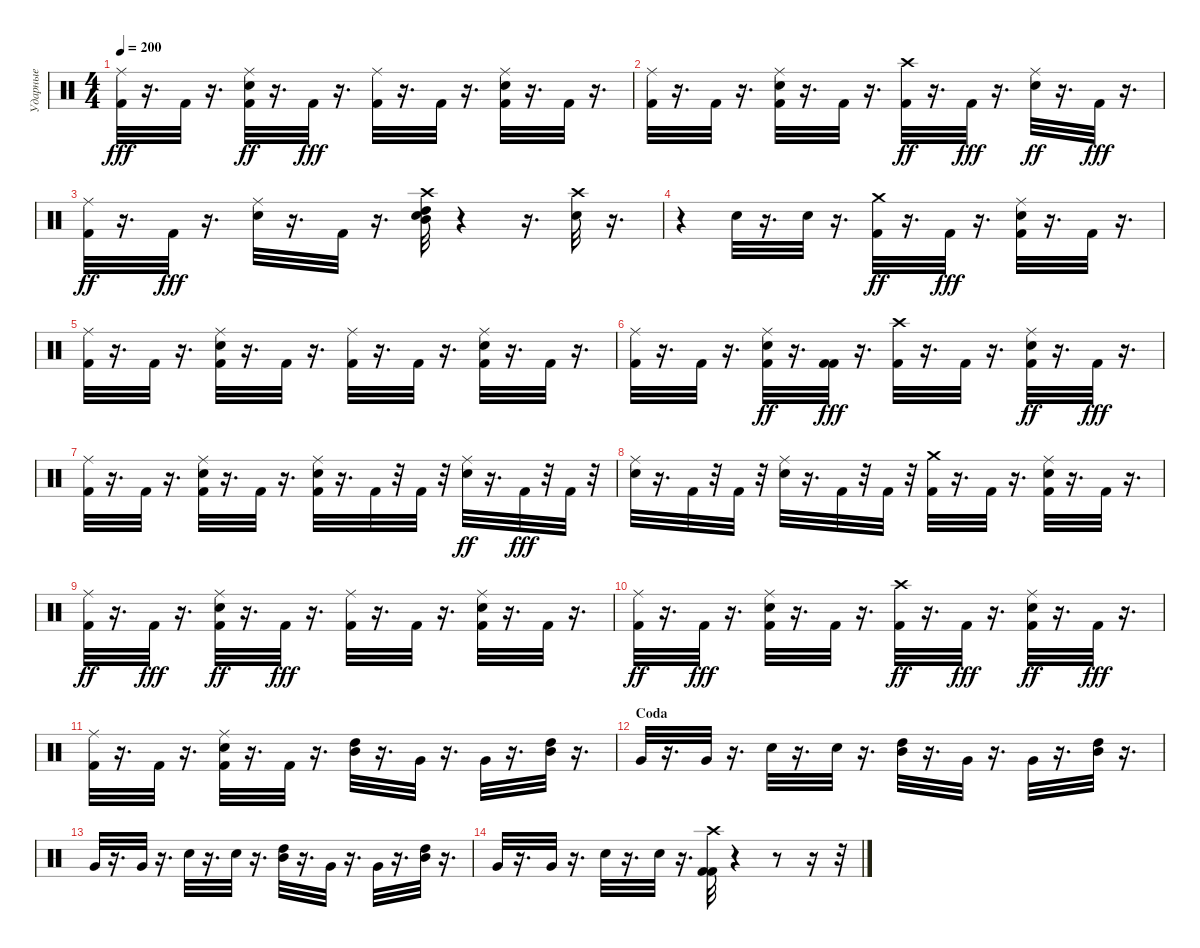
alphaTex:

\track ("Ударные" "Ударные") {instrument percussion}
\staff {score}
\articulation defaults
\ts (4 4)
\tempo 200
\clef neutral
\ks c
("Ride (middle)" "Kick (hit) 2").32{dy fff} r.16{d} "Kick (hit) 2".32 r.16{d} ("Kick (hit) 2" "Snare (hit) 2" "Ride (middle)").32{dy ff} r.16{d} "Kick (hit) 2".32{dy fff} r.16{d} ("Ride (middle)" "Kick (hit) 2").32 r.16{d} "Kick (hit) 2".32 r.16{d} ("Kick (hit) 2" "Ride (middle)" "Snare (hit) 2").32 r.16{d} "Kick (hit) 2".32 r.16{d} |
("Ride (middle)" "Kick (hit) 2").32 r.16{d} "Kick (hit) 2".32 r.16{d} ("Kick (hit) 2" "Ride (middle)" "Snare (hit) 2").32 r.16{d} "Kick (hit) 2".32 r.16{d} ("Kick (hit) 2" "Crash high (hit)").32{dy ff} r.16{d} "Kick (hit) 2".32{dy fff} r.16{d} ("Snare (hit) 2" "Ride (middle)").32{dy ff} r.16{d} "Kick (hit) 2".32{dy fff} r.16{d} |
("Kick (hit) 2" "Ride (middle)").32{dy ff} r.16{d} "Kick (hit) 2".32{dy fff} r.16{d} ("Ride (middle)" "Snare (hit) 2").32 r.16{d} "Kick (hit) 2".32 r.16{d} ("Crash high (hit)" "Mid Tom (hit)" "High Tom (hit)" "Snare (hit) 2").32 r.4 r.16{d} ("Crash high (hit)" "Snare (hit) 2").32 r.16{d} |
r.4 "Snare (hit) 2".32 r.16{d} "Snare (hit) 2".32 r.16{d} ("Kick (hit) 2" "Crash medium (hit)").32{dy ff} r.16{d} "Kick (hit) 2".32{dy fff} r.16{d} ("Kick (hit) 2" "Ride (middle)" "Snare (hit) 2").32 r.16{d} "Kick (hit) 2".32 r.16{d} |
("Ride (middle)" "Kick (hit) 2").32 r.16{d} "Kick (hit) 2".32 r.16{d} ("Kick (hit) 2" "Ride (middle)" "Snare (hit) 2").32 r.16{d} "Kick (hit) 2".32 r.16{d} ("Ride (middle)" "Kick (hit) 2").32 r.16{d} "Kick (hit) 2".32 r.16{d} ("Ride (middle)" "Snare (hit) 2" "Kick (hit) 2").32 r.16{d} "Kick (hit) 2".32 r.16{d} |
("Ride (middle)" "Kick (hit) 2").32 r.16{d} "Kick (hit) 2".32 r.16{d} ("Kick (hit) 2" "Snare (hit) 2" "Ride (middle)").32{dy ff} r.16{d} ("Kick (hit) 2" "Kick (hit) 2").32{dy fff} r.16{d} ("Crash high (hit)" "Kick (hit) 2").32 r.16{d} "Kick (hit) 2".32 r.16{d} ("Snare (hit) 2" "Kick (hit) 2" "Ride (middle)").32{dy ff} r.16{d} "Kick (hit) 2".32{dy fff} r.16{d} |
("Ride (middle)" "Kick (hit) 2").32 r.16{d} "Kick (hit) 2".32 r.16{d} ("Kick (hit) 2" "Ride (middle)" "Snare (hit) 2").32 r.16{d} "Kick (hit) 2".32 r.16{d} ("Snare (hit) 2" "Ride (middle)" "Kick (hit) 2").32 r.16{d} "Kick (hit) 2".32 r.32 "Kick (hit) 2".32 r.32 ("Snare (hit) 2" "Ride (middle)").32{dy ff} r.16{d} "Kick (hit) 2".32{dy fff} r.32 "Kick (hit) 2".32 r.32 |
("Ride (middle)" "Snare (hit) 2").32 r.16{d} "Kick (hit) 2".32 r.32 "Kick (hit) 2".32 r.32 ("Ride (middle)" "Snare (hit) 2").32 r.16{d} "Kick (hit) 2".32 r.32 "Kick (hit) 2".32 r.32 ("Crash medium (hit)" "Kick (hit) 2").32 r.16{d} "Kick (hit) 2".32 r.16{d} ("Ride (middle)" "Snare (hit) 2" "Kick (hit) 2").32 r.16{d} "Kick (hit) 2".32 r.16{d} |
("Kick (hit) 2" "Ride (middle)").32{dy ff} r.16{d} "Kick (hit) 2".32{dy fff} r.16{d} ("Kick (hit) 2" "Snare (hit) 2" "Ride (middle)").32{dy ff} r.16{d} "Kick (hit) 2".32{dy fff} r.16{d} ("Ride (middle)" "Kick (hit) 2").32 r.16{d} "Kick (hit) 2".32 r.16{d} ("Snare (hit) 2" "Ride (middle)" "Kick (hit) 2").32 r.16{d} "Kick (hit) 2".32 r.16{d} |
("Kick (hit) 2" "Ride (middle)").32{dy ff} r.16{d} "Kick (hit) 2".32{dy fff} r.16{d} ("Kick (hit) 2" "Ride (middle)" "Snare (hit) 2").32 r.16{d} "Kick (hit) 2".32 r.16{d} ("Kick (hit) 2" "Crash high (hit)").32{dy ff} r.16{d} "Kick (hit) 2".32{dy fff} r.16{d} ("Kick (hit) 2" "Snare (hit) 2" "Ride (middle)").32{dy ff} r.16{d} "Kick (hit) 2".32{dy fff} r.16{d} |
("Ride (middle)" "Kick (hit) 2").32 r.16{d} "Kick (hit) 2".32 r.16{d} ("Kick (hit) 2" "Ride (middle)" "Snare (hit) 2").32 r.16{d} "Kick (hit) 2".32 r.16{d} ("High Tom (hit)" "Mid Tom (hit)").32 r.16{d} "Very Low Tom (hit)".32 r.16{d} "Very Low Tom (hit)".32 r.16{d} ("High Tom (hit)" "Mid Tom (hit)").32 r.16{d} |
\section ("" "Coda")
"Very Low Tom (hit)".32 r.16{d} "Very Low Tom (hit)".32 r.16{d} "Snare (hit) 2".32 r.16{d} "Snare (hit) 2".32 r.16{d} ("Mid Tom (hit)" "High Tom (hit)").32 r.16{d} "Very Low Tom (hit)".32 r.16{d} "Very Low Tom (hit)".32 r.16{d} ("High Tom (hit)" "Mid Tom (hit)").32 r.16{d} |
"Very Low Tom (hit)".32 r.16{d} "Very Low Tom (hit)".32 r.16{d} "Snare (hit) 2".32 r.16{d} "Snare (hit) 2".32 r.16{d} ("Mid Tom (hit)" "High Tom (hit)").32 r.16{d} "Very Low Tom (hit)".32 r.16{d} "Very Low Tom (hit)".32 r.16{d} ("High Tom (hit)" "Mid Tom (hit)").32 r.16{d} |
"Very Low Tom (hit)".32 r.16{d} "Very Low Tom (hit)".32 r.16{d} "Snare (hit) 2".32 r.16{d} "Snare (hit) 2".32 r.16{d} ("Crash high (hit)" "Kick (hit) 2" "Kick (hit) 2").32 r.4 r.8 r.16 r.32
